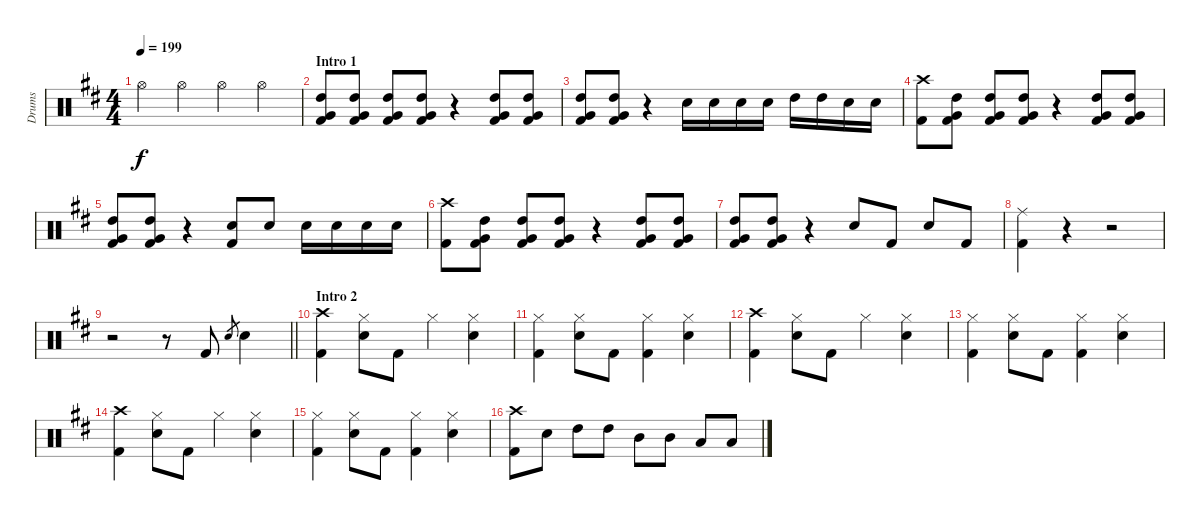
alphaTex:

\track ("Drums" "Drums") {instrument percussion}
\staff {score}
\articulation defaults
\ts (4 4)
\tempo 199
\clef neutral
\ks d "Hi-Hat (open)".4{dy f} "Hi-Hat (open)".4 "Hi-Hat (open)".4 "Hi-Hat (open)".4
|
\section ("" "Intro 1")
("High Tom (hit)" "Very Low Tom (hit)" "Kick (hit) 2").8{volume 8} ("High Tom (hit)" "Very Low Tom (hit)" "Kick (hit) 2").8 ("High Tom (hit)" "Very Low Tom (hit)" "Kick (hit) 2").8 ("High Tom (hit)" "Very Low Tom (hit)" "Kick (hit) 2").8 r.4 ("High Tom (hit)" "Very Low Tom (hit)" "Kick (hit) 2").8 ("High Tom (hit)" "Very Low Tom (hit)" "Kick (hit) 2").8 |
("High Tom (hit)" "Very Low Tom (hit)" "Kick (hit) 2").8 ("High Tom (hit)" "Very Low Tom (hit)" "Kick (hit) 2").8 r.4 "Snare (hit) 2".16 "Snare (hit) 2".16 "Snare (hit) 2".16 "Snare (hit) 2".16 "High Tom (hit)".16 "High Tom (hit)".16 "Snare (hit) 2".16 "Snare (hit) 2".16 |
("Crash high (hit)" "Kick (hit) 2").8 ("High Tom (hit)" "Very Low Tom (hit)" "Kick (hit) 2").8 ("High Tom (hit)" "Very Low Tom (hit)" "Kick (hit) 2").8 ("High Tom (hit)" "Very Low Tom (hit)" "Kick (hit) 2").8 r.4 ("High Tom (hit)" "Very Low Tom (hit)" "Kick (hit) 2").8 ("High Tom (hit)" "Very Low Tom (hit)" "Kick (hit) 2").8 |
("High Tom (hit)" "Very Low Tom (hit)" "Kick (hit) 2").8 ("High Tom (hit)" "Very Low Tom (hit)" "Kick (hit) 2").8 r.4 ("Snare (hit) 2" "Kick (hit) 2").8 "Snare (hit) 2".8 "Snare (hit) 2".16 "Snare (hit) 2".16 "Snare (hit) 2".16 "Snare (hit) 2".16 |
("Crash high (hit)" "Kick (hit) 2").8 ("High Tom (hit)" "Very Low Tom (hit)" "Kick (hit) 2").8 ("High Tom (hit)" "Very Low Tom (hit)" "Kick (hit) 2").8 ("High Tom (hit)" "Very Low Tom (hit)" "Kick (hit) 2").8 r.4 ("High Tom (hit)" "Very Low Tom (hit)" "Kick (hit) 2").8 ("High Tom (hit)" "Very Low Tom (hit)" "Kick (hit) 2").8 |
("High Tom (hit)" "Very Low Tom (hit)" "Kick (hit) 2").8 ("High Tom (hit)" "Very Low Tom (hit)" "Kick (hit) 2").8 r.4 "Snare (hit) 2".8 "Kick (hit) 2".8 "Snare (hit) 2".8 "Kick (hit) 2".8 |
("Ride (middle)" "Kick (hit) 2").4 r.4 r.2 |
\barLineRight lightlight
r.2 r.8 "Kick (hit) 2".8{volume 12} "Snare (hit) 2".8{gr} "Snare (hit) 2".4 |
\section ("" "Intro 2")
("Crash high (hit)" "Kick (hit) 2").4 ("Hi-Hat (closed)" "Snare (hit) 2").8 "Kick (hit) 2".8 "Hi-Hat (closed)".4 ("Hi-Hat (closed)" "Snare (hit) 2").4 |
("Hi-Hat (closed)" "Kick (hit) 2").4 ("Hi-Hat (closed)" "Snare (hit) 2").8 "Kick (hit) 2".8 ("Hi-Hat (closed)" "Kick (hit) 2").4 ("Hi-Hat (closed)" "Snare (hit) 2").4 |
("Crash high (hit)" "Kick (hit) 2").4 ("Hi-Hat (closed)" "Snare (hit) 2").8 "Kick (hit) 2".8 "Hi-Hat (closed)".4 ("Hi-Hat (closed)" "Snare (hit) 2").4 |
("Hi-Hat (closed)" "Kick (hit) 2").4 ("Hi-Hat (closed)" "Snare (hit) 2").8 "Kick (hit) 2".8 ("Hi-Hat (closed)" "Kick (hit) 2").4 ("Hi-Hat (closed)" "Snare (hit) 2").4 |
("Crash high (hit)" "Kick (hit) 2").4 ("Hi-Hat (closed)" "Snare (hit) 2").8 "Kick (hit) 2".8 "Hi-Hat (closed)".4 ("Hi-Hat (closed)" "Snare (hit) 2").4 |
("Hi-Hat (closed)" "Kick (hit) 2").4 ("Hi-Hat (closed)" "Snare (hit) 2").8 "Kick (hit) 2".8 ("Hi-Hat (closed)" "Kick (hit) 2").4 ("Hi-Hat (closed)" "Snare (hit) 2").4 |
("Crash high (hit)" "Kick (hit) 2").8 "Snare (hit) 2".8 "High Tom (hit)".8 "High Tom (hit)".8 "Mid Tom (hit)".8 "Mid Tom (hit)".8 "Low Tom (hit)".8 "Low Tom (hit)".8
